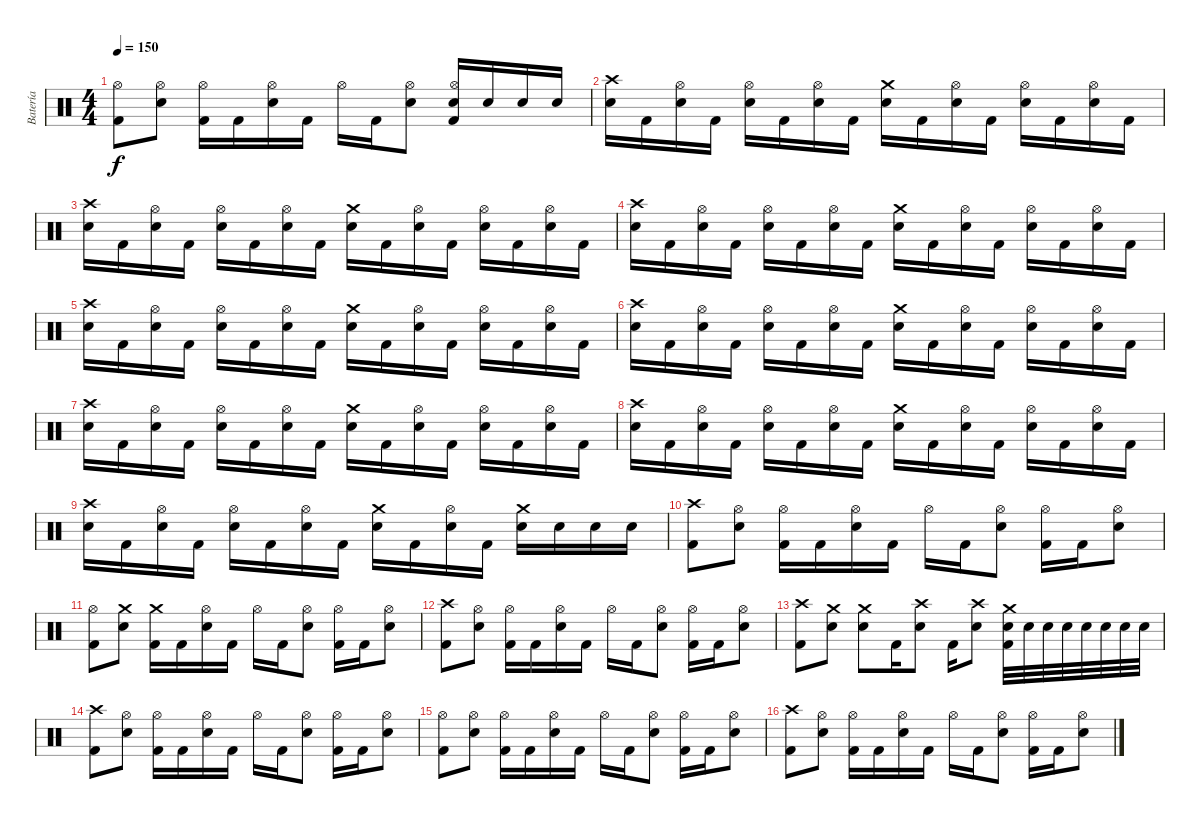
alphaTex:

\track ("Batería" "Batería") {instrument percussion}
\staff {score}
\articulation defaults
\ts (4 4)
\tempo 150
\clef neutral
\ks c
("Kick (hit) 2" "Hi-Hat (open)").8{dy f} ("Electric Snare (hit)" "Hi-Hat (open)").8 ("Kick (hit) 2" "Hi-Hat (open)").16 "Kick (hit) 2".16 ("Electric Snare (hit)" "Hi-Hat (open)").16 "Kick (hit) 2".16 "Hi-Hat (open)".16 "Kick (hit) 2".16 ("Electric Snare (hit)" "Hi-Hat (open)").8 ("Kick (hit) 2" "Electric Snare (hit)" "Hi-Hat (open)").16 "Electric Snare (hit)".16 "Electric Snare (hit)".16 "Electric Snare (hit)".16 |
("Electric Snare (hit)" "Crash high (hit)").16 "Kick (hit) 2".16 ("Electric Snare (hit)" "Hi-Hat (open)").16 "Kick (hit) 2".16 ("Electric Snare (hit)" "Hi-Hat (open)").16 "Kick (hit) 2".16 ("Electric Snare (hit)" "Hi-Hat (open)").16 "Kick (hit) 2".16 ("Electric Snare (hit)" "Crash medium (hit)").16 "Kick (hit) 2".16 ("Electric Snare (hit)" "Hi-Hat (open)").16 "Kick (hit) 2".16 ("Electric Snare (hit)" "Hi-Hat (open)").16 "Kick (hit) 2".16 ("Electric Snare (hit)" "Hi-Hat (open)").16 "Kick (hit) 2".16 |
("Electric Snare (hit)" "Crash high (hit)").16 "Kick (hit) 2".16 ("Electric Snare (hit)" "Hi-Hat (open)").16 "Kick (hit) 2".16 ("Electric Snare (hit)" "Hi-Hat (open)").16 "Kick (hit) 2".16 ("Electric Snare (hit)" "Hi-Hat (open)").16 "Kick (hit) 2".16 ("Electric Snare (hit)" "Crash medium (hit)").16 "Kick (hit) 2".16 ("Electric Snare (hit)" "Hi-Hat (open)").16 "Kick (hit) 2".16 ("Electric Snare (hit)" "Hi-Hat (open)").16 "Kick (hit) 2".16 ("Electric Snare (hit)" "Hi-Hat (open)").16 "Kick (hit) 2".16 |
("Electric Snare (hit)" "Crash high (hit)").16 "Kick (hit) 2".16 ("Electric Snare (hit)" "Hi-Hat (open)").16 "Kick (hit) 2".16 ("Electric Snare (hit)" "Hi-Hat (open)").16 "Kick (hit) 2".16 ("Electric Snare (hit)" "Hi-Hat (open)").16 "Kick (hit) 2".16 ("Electric Snare (hit)" "Crash medium (hit)").16 "Kick (hit) 2".16 ("Electric Snare (hit)" "Hi-Hat (open)").16 "Kick (hit) 2".16 ("Electric Snare (hit)" "Hi-Hat (open)").16 "Kick (hit) 2".16 ("Electric Snare (hit)" "Hi-Hat (open)").16 "Kick (hit) 2".16 |
("Electric Snare (hit)" "Crash high (hit)").16 "Kick (hit) 2".16 ("Electric Snare (hit)" "Hi-Hat (open)").16 "Kick (hit) 2".16 ("Electric Snare (hit)" "Hi-Hat (open)").16 "Kick (hit) 2".16 ("Electric Snare (hit)" "Hi-Hat (open)").16 "Kick (hit) 2".16 ("Electric Snare (hit)" "Crash medium (hit)").16 "Kick (hit) 2".16 ("Electric Snare (hit)" "Hi-Hat (open)").16 "Kick (hit) 2".16 ("Electric Snare (hit)" "Hi-Hat (open)").16 "Kick (hit) 2".16 ("Electric Snare (hit)" "Hi-Hat (open)").16 "Kick (hit) 2".16 |
("Electric Snare (hit)" "Crash high (hit)").16 "Kick (hit) 2".16 ("Electric Snare (hit)" "Hi-Hat (open)").16 "Kick (hit) 2".16 ("Electric Snare (hit)" "Hi-Hat (open)").16 "Kick (hit) 2".16 ("Electric Snare (hit)" "Hi-Hat (open)").16 "Kick (hit) 2".16 ("Electric Snare (hit)" "Crash medium (hit)").16 "Kick (hit) 2".16 ("Electric Snare (hit)" "Hi-Hat (open)").16 "Kick (hit) 2".16 ("Electric Snare (hit)" "Hi-Hat (open)").16 "Kick (hit) 2".16 ("Electric Snare (hit)" "Hi-Hat (open)").16 "Kick (hit) 2".16 |
("Electric Snare (hit)" "Crash high (hit)").16 "Kick (hit) 2".16 ("Electric Snare (hit)" "Hi-Hat (open)").16 "Kick (hit) 2".16 ("Electric Snare (hit)" "Hi-Hat (open)").16 "Kick (hit) 2".16 ("Electric Snare (hit)" "Hi-Hat (open)").16 "Kick (hit) 2".16 ("Electric Snare (hit)" "Crash medium (hit)").16 "Kick (hit) 2".16 ("Electric Snare (hit)" "Hi-Hat (open)").16 "Kick (hit) 2".16 ("Electric Snare (hit)" "Hi-Hat (open)").16 "Kick (hit) 2".16 ("Electric Snare (hit)" "Hi-Hat (open)").16 "Kick (hit) 2".16 |
("Electric Snare (hit)" "Crash high (hit)").16 "Kick (hit) 2".16 ("Electric Snare (hit)" "Hi-Hat (open)").16 "Kick (hit) 2".16 ("Electric Snare (hit)" "Hi-Hat (open)").16 "Kick (hit) 2".16 ("Electric Snare (hit)" "Hi-Hat (open)").16 "Kick (hit) 2".16 ("Electric Snare (hit)" "Crash medium (hit)").16 "Kick (hit) 2".16 ("Electric Snare (hit)" "Hi-Hat (open)").16 "Kick (hit) 2".16 ("Electric Snare (hit)" "Hi-Hat (open)").16 "Kick (hit) 2".16 ("Electric Snare (hit)" "Hi-Hat (open)").16 "Kick (hit) 2".16 |
("Electric Snare (hit)" "Crash high (hit)").16 "Kick (hit) 2".16 ("Electric Snare (hit)" "Hi-Hat (open)").16 "Kick (hit) 2".16 ("Electric Snare (hit)" "Hi-Hat (open)").16 "Kick (hit) 2".16 ("Electric Snare (hit)" "Hi-Hat (open)").16 "Kick (hit) 2".16 ("Electric Snare (hit)" "Crash medium (hit)").16 "Kick (hit) 2".16 ("Electric Snare (hit)" "Hi-Hat (open)").16 "Kick (hit) 2".16 ("Electric Snare (hit)" "Crash medium (hit)").16 "Electric Snare (hit)".16 "Electric Snare (hit)".16 "Electric Snare (hit)".16 |
("Kick (hit) 2" "Crash high (hit)").8 ("Electric Snare (hit)" "Hi-Hat (open)").8 ("Kick (hit) 2" "Hi-Hat (open)").16 "Kick (hit) 2".16 ("Electric Snare (hit)" "Hi-Hat (open)").16 "Kick (hit) 2".16 "Hi-Hat (open)".16 "Kick (hit) 2".16 ("Electric Snare (hit)" "Hi-Hat (open)").8 ("Kick (hit) 2" "Hi-Hat (open)").16 "Kick (hit) 2".16 ("Electric Snare (hit)" "Hi-Hat (open)").8 |
("Kick (hit) 2" "Hi-Hat (open)").8 ("Electric Snare (hit)" "Crash medium (hit)").8 ("Kick (hit) 2" "Crash medium (hit)").16 "Kick (hit) 2".16 ("Electric Snare (hit)" "Hi-Hat (open)").16 "Kick (hit) 2".16 "Hi-Hat (open)".16 "Kick (hit) 2".16 ("Electric Snare (hit)" "Hi-Hat (open)").8 ("Kick (hit) 2" "Hi-Hat (open)").16 "Kick (hit) 2".16 ("Electric Snare (hit)" "Hi-Hat (open)").8 |
("Kick (hit) 2" "Crash high (hit)").8 ("Electric Snare (hit)" "Hi-Hat (open)").8 ("Kick (hit) 2" "Hi-Hat (open)").16 "Kick (hit) 2".16 ("Electric Snare (hit)" "Hi-Hat (open)").16 "Kick (hit) 2".16 "Hi-Hat (open)".16 "Kick (hit) 2".16 ("Electric Snare (hit)" "Hi-Hat (open)").8 ("Kick (hit) 2" "Hi-Hat (open)").16 "Kick (hit) 2".16 ("Electric Snare (hit)" "Hi-Hat (open)").8 |
("Kick (hit) 2" "Crash high (hit)").8 ("Electric Snare (hit)" "Crash medium (hit)").8 ("Electric Snare (hit)" "Crash medium (hit)").8 "Kick (hit) 2".16 ("Electric Snare (hit)" "Crash high (hit)").8 "Kick (hit) 2".16 ("Electric Snare (hit)" "Crash high (hit)").8 ("Kick (hit) 2" "Electric Snare (hit)" "Crash medium (hit)").32 "Electric Snare (hit)".32 "Electric Snare (hit)".32 "Electric Snare (hit)".32 "Electric Snare (hit)".32 "Electric Snare (hit)".32 "Electric Snare (hit)".32 "Electric Snare (hit)".32 |
("Kick (hit) 2" "Crash high (hit)").8 ("Electric Snare (hit)" "Hi-Hat (open)").8 ("Kick (hit) 2" "Hi-Hat (open)").16 "Kick (hit) 2".16 ("Electric Snare (hit)" "Hi-Hat (open)").16 "Kick (hit) 2".16 "Hi-Hat (open)".16 "Kick (hit) 2".16 ("Electric Snare (hit)" "Hi-Hat (open)").8 ("Kick (hit) 2" "Hi-Hat (open)").16 "Kick (hit) 2".16 ("Electric Snare (hit)" "Hi-Hat (open)").8 |
("Kick (hit) 2" "Hi-Hat (open)").8 ("Electric Snare (hit)" "Hi-Hat (open)").8 ("Kick (hit) 2" "Hi-Hat (open)").16 "Kick (hit) 2".16 ("Electric Snare (hit)" "Hi-Hat (open)").16 "Kick (hit) 2".16 "Hi-Hat (open)".16 "Kick (hit) 2".16 ("Electric Snare (hit)" "Hi-Hat (open)").8 ("Kick (hit) 2" "Hi-Hat (open)").16 "Kick (hit) 2".16 ("Electric Snare (hit)" "Hi-Hat (open)").8 |
("Kick (hit) 2" "Crash high (hit)").8 ("Electric Snare (hit)" "Hi-Hat (open)").8 ("Kick (hit) 2" "Hi-Hat (open)").16 "Kick (hit) 2".16 ("Electric Snare (hit)" "Hi-Hat (open)").16 "Kick (hit) 2".16 "Hi-Hat (open)".16 "Kick (hit) 2".16 ("Electric Snare (hit)" "Hi-Hat (open)").8 ("Kick (hit) 2" "Hi-Hat (open)").16 "Kick (hit) 2".16 ("Electric Snare (hit)" "Hi-Hat (open)").8
